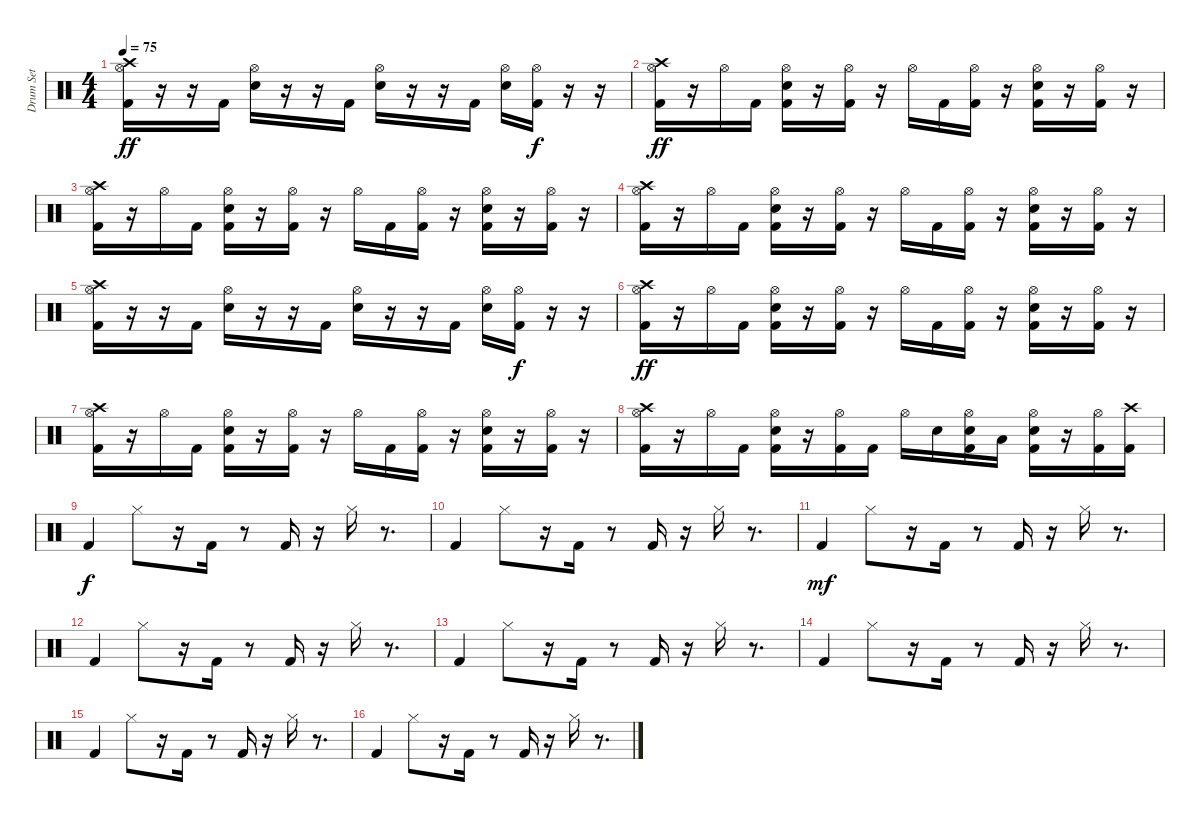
\track ("Drum Set" "Drum Set") {instrument percussion}
\staff {score}
\articulation defaults
\ts (4 4)
\tempo 75
\clef neutral
\ks c
("Hi-Hat (open)" "Crash high (hit)" "Kick (hit) 2").16{dy ff} r.16 r.16 "Kick (hit) 2".16 ("Hi-Hat (open)" "Snare (hit) 2").16 r.16 r.16 "Kick (hit) 2".16 ("Hi-Hat (open)" "Snare (hit) 2").16 r.16 r.16 "Kick (hit) 2".16 ("Hi-Hat (open)" "Snare (hit) 2").16 ("Hi-Hat (open)" "Kick (hit) 2").16{dy f} r.16 r.16 |
("Hi-Hat (open)" "Crash high (hit)" "Kick (hit) 2").16{dy ff} r.16 "Hi-Hat (open)".16 "Kick (hit) 2".16 ("Hi-Hat (open)" "Snare (hit) 2" "Kick (hit) 2").16 r.16 ("Hi-Hat (open)" "Kick (hit) 2").16 r.16 "Hi-Hat (open)".16 "Kick (hit) 2".16 ("Hi-Hat (open)" "Kick (hit) 2").16 r.16 ("Hi-Hat (open)" "Snare (hit) 2" "Kick (hit) 2").16 r.16 ("Hi-Hat (open)" "Kick (hit) 2").16 r.16 |
("Hi-Hat (open)" "Crash high (hit)" "Kick (hit) 2").16 r.16 "Hi-Hat (open)".16 "Kick (hit) 2".16 ("Hi-Hat (open)" "Snare (hit) 2" "Kick (hit) 2").16 r.16 ("Hi-Hat (open)" "Kick (hit) 2").16 r.16 "Hi-Hat (open)".16 "Kick (hit) 2".16 ("Hi-Hat (open)" "Kick (hit) 2").16 r.16 ("Hi-Hat (open)" "Snare (hit) 2" "Kick (hit) 2").16 r.16 ("Hi-Hat (open)" "Kick (hit) 2").16 r.16 |
("Hi-Hat (open)" "Crash high (hit)" "Kick (hit) 2").16 r.16 "Hi-Hat (open)".16 "Kick (hit) 2".16 ("Hi-Hat (open)" "Snare (hit) 2" "Kick (hit) 2").16 r.16 ("Hi-Hat (open)" "Kick (hit) 2").16 r.16 "Hi-Hat (open)".16 "Kick (hit) 2".16 ("Hi-Hat (open)" "Kick (hit) 2").16 r.16 ("Hi-Hat (open)" "Snare (hit) 2" "Kick (hit) 2").16 r.16 ("Hi-Hat (open)" "Kick (hit) 2").16 r.16 |
("Hi-Hat (open)" "Crash high (hit)" "Kick (hit) 2").16 r.16 r.16 "Kick (hit) 2".16 ("Hi-Hat (open)" "Snare (hit) 2").16 r.16 r.16 "Kick (hit) 2".16 ("Hi-Hat (open)" "Snare (hit) 2").16 r.16 r.16 "Kick (hit) 2".16 ("Hi-Hat (open)" "Snare (hit) 2").16 ("Hi-Hat (open)" "Kick (hit) 2").16{dy f} r.16 r.16 |
("Hi-Hat (open)" "Crash high (hit)" "Kick (hit) 2").16{dy ff} r.16 "Hi-Hat (open)".16 "Kick (hit) 2".16 ("Hi-Hat (open)" "Snare (hit) 2" "Kick (hit) 2").16 r.16 ("Hi-Hat (open)" "Kick (hit) 2").16 r.16 "Hi-Hat (open)".16 "Kick (hit) 2".16 ("Hi-Hat (open)" "Kick (hit) 2").16 r.16 ("Hi-Hat (open)" "Snare (hit) 2" "Kick (hit) 2").16 r.16 ("Hi-Hat (open)" "Kick (hit) 2").16 r.16 |
("Hi-Hat (open)" "Crash high (hit)" "Kick (hit) 2").16 r.16 "Hi-Hat (open)".16 "Kick (hit) 2".16 ("Hi-Hat (open)" "Snare (hit) 2" "Kick (hit) 2").16 r.16 ("Hi-Hat (open)" "Kick (hit) 2").16 r.16 "Hi-Hat (open)".16 "Kick (hit) 2".16 ("Hi-Hat (open)" "Kick (hit) 2").16 r.16 ("Hi-Hat (open)" "Snare (hit) 2" "Kick (hit) 2").16 r.16 ("Hi-Hat (open)" "Kick (hit) 2").16 r.16 |
("Hi-Hat (open)" "Crash high (hit)" "Kick (hit) 2").16 r.16 "Hi-Hat (open)".16 "Kick (hit) 2".16 ("Hi-Hat (open)" "Snare (hit) 2" "Kick (hit) 2").16 r.16 ("Hi-Hat (open)" "Kick (hit) 2").16 "Kick (hit) 2".16 "Hi-Hat (open)".16 "Snare (hit) 2".16 ("Hi-Hat (open)" "Snare (hit) 2" "Kick (hit) 2").16 "Low Floor Tom (hit)".16 ("Hi-Hat (open)" "Snare (hit) 2" "Kick (hit) 2").16 r.16 ("Hi-Hat (open)" "Kick (hit) 2").16 ("Crash high (hit)" "Kick (hit) 2").16 |
"Kick (hit) 2".4{dy f} "Hi-Hat (closed)".8 r.16 "Kick (hit) 2".16 r.8 "Kick (hit) 2".16 r.16 "Hi-Hat (closed)".16 r.8{d} |
"Kick (hit) 2".4 "Hi-Hat (closed)".8 r.16 "Kick (hit) 2".16 r.8 "Kick (hit) 2".16 r.16 "Hi-Hat (closed)".16 r.8{d} |
"Kick (hit) 2".4{dy mf} "Hi-Hat (closed)".8 r.16 "Kick (hit) 2".16 r.8 "Kick (hit) 2".16 r.16 "Hi-Hat (closed)".16 r.8{d} |
"Kick (hit) 2".4 "Hi-Hat (closed)".8 r.16 "Kick (hit) 2".16 r.8 "Kick (hit) 2".16 r.16 "Hi-Hat (closed)".16 r.8{d} |
"Kick (hit) 2".4 "Hi-Hat (closed)".8 r.16 "Kick (hit) 2".16 r.8 "Kick (hit) 2".16 r.16 "Hi-Hat (closed)".16 r.8{d} |
"Kick (hit) 2".4 "Hi-Hat (closed)".8 r.16 "Kick (hit) 2".16 r.8 "Kick (hit) 2".16 r.16 "Hi-Hat (closed)".16 r.8{d} |
"Kick (hit) 2".4 "Hi-Hat (closed)".8 r.16 "Kick (hit) 2".16 r.8 "Kick (hit) 2".16 r.16 "Hi-Hat (closed)".16 r.8{d} |
"Kick (hit) 2".4 "Hi-Hat (closed)".8 r.16 "Kick (hit) 2".16 r.8 "Kick (hit) 2".16 r.16 "Hi-Hat (closed)".16 r.8{d}
